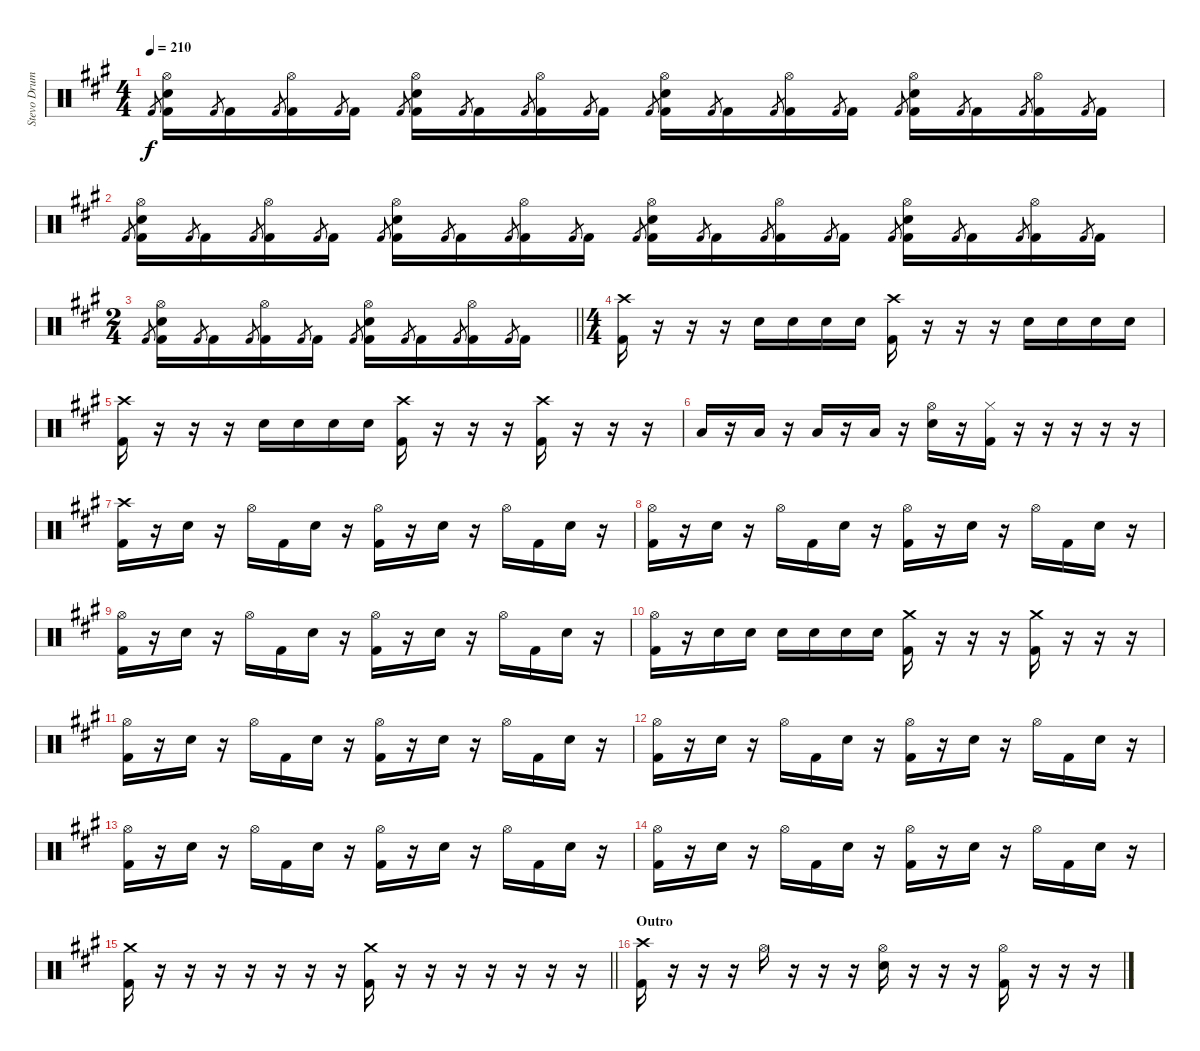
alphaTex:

\track ("Stevo Drums" "Stevo Drum") {instrument percussion}
\staff {score}
\articulation defaults
\ts (4 4)
\tempo 210
\clef neutral
\ks a "Kick (hit) 2".8{gr dy f}
("Hi-Hat (open)" "Snare (hit) 2" "Kick (hit) 2").16 "Kick (hit) 2".8{gr} "Kick (hit) 2".16 "Kick (hit) 2".8{gr} ("Hi-Hat (open)" "Kick (hit) 2").16 "Kick (hit) 2".8{gr} "Kick (hit) 2".16 "Kick (hit) 2".8{gr} ("Hi-Hat (open)" "Snare (hit) 2" "Kick (hit) 2").16 "Kick (hit) 2".8{gr} "Kick (hit) 2".16 "Kick (hit) 2".8{gr} ("Hi-Hat (open)" "Kick (hit) 2").16 "Kick (hit) 2".8{gr} "Kick (hit) 2".16 "Kick (hit) 2".8{gr} ("Hi-Hat (open)" "Snare (hit) 2" "Kick (hit) 2").16 "Kick (hit) 2".8{gr} "Kick (hit) 2".16 "Kick (hit) 2".8{gr} ("Hi-Hat (open)" "Kick (hit) 2").16 "Kick (hit) 2".8{gr} "Kick (hit) 2".16 "Kick (hit) 2".8{gr} ("Hi-Hat (open)" "Snare (hit) 2" "Kick (hit) 2").16 "Kick (hit) 2".8{gr} "Kick (hit) 2".16 "Kick (hit) 2".8{gr} ("Hi-Hat (open)" "Kick (hit) 2").16 "Kick (hit) 2".8{gr} "Kick (hit) 2".16 |
"Kick (hit) 2".8{gr} ("Hi-Hat (open)" "Snare (hit) 2" "Kick (hit) 2").16 "Kick (hit) 2".8{gr} "Kick (hit) 2".16 "Kick (hit) 2".8{gr} ("Hi-Hat (open)" "Kick (hit) 2").16 "Kick (hit) 2".8{gr} "Kick (hit) 2".16 "Kick (hit) 2".8{gr} ("Hi-Hat (open)" "Snare (hit) 2" "Kick (hit) 2").16 "Kick (hit) 2".8{gr} "Kick (hit) 2".16 "Kick (hit) 2".8{gr} ("Hi-Hat (open)" "Kick (hit) 2").16 "Kick (hit) 2".8{gr} "Kick (hit) 2".16 "Kick (hit) 2".8{gr} ("Hi-Hat (open)" "Snare (hit) 2" "Kick (hit) 2").16 "Kick (hit) 2".8{gr} "Kick (hit) 2".16 "Kick (hit) 2".8{gr} ("Hi-Hat (open)" "Kick (hit) 2").16 "Kick (hit) 2".8{gr} "Kick (hit) 2".16 "Kick (hit) 2".8{gr} ("Hi-Hat (open)" "Snare (hit) 2" "Kick (hit) 2").16 "Kick (hit) 2".8{gr} "Kick (hit) 2".16 "Kick (hit) 2".8{gr} ("Hi-Hat (open)" "Kick (hit) 2").16 "Kick (hit) 2".8{gr} "Kick (hit) 2".16 |
\ts (2 4)
\barLineRight lightlight "Kick (hit) 2".8{gr}
("Hi-Hat (open)" "Snare (hit) 2" "Kick (hit) 2").16 "Kick (hit) 2".8{gr} "Kick (hit) 2".16 "Kick (hit) 2".8{gr} ("Hi-Hat (open)" "Kick (hit) 2").16 "Kick (hit) 2".8{gr} "Kick (hit) 2".16 "Kick (hit) 2".8{gr} ("Hi-Hat (open)" "Snare (hit) 2" "Kick (hit) 2").16 "Kick (hit) 2".8{gr} "Kick (hit) 2".16 "Kick (hit) 2".8{gr} ("Hi-Hat (open)" "Kick (hit) 2").16 "Kick (hit) 2".8{gr} "Kick (hit) 2".16 |
\ts (4 4)
("Crash high (hit)" "Kick (hit) 2").16 r.16 r.16 r.16 "Snare (hit) 2".16 "Snare (hit) 2".16 "Snare (hit) 2".16 "Snare (hit) 2".16 ("Crash high (hit)" "Kick (hit) 2").16 r.16 r.16 r.16 "Snare (hit) 2".16 "Snare (hit) 2".16 "Snare (hit) 2".16 "Snare (hit) 2".16 |
("Crash high (hit)" "Kick (hit) 2").16 r.16 r.16 r.16 "Snare (hit) 2".16 "Snare (hit) 2".16 "Snare (hit) 2".16 "Snare (hit) 2".16 ("Crash high (hit)" "Kick (hit) 2").16 r.16 r.16 r.16 ("Crash high (hit)" "Kick (hit) 2").16 r.16 r.16 r.16 |
"Low Floor Tom (hit)".16 r.16 "Low Floor Tom (hit)".16 r.16 "Low Floor Tom (hit)".16 r.16 "Low Floor Tom (hit)".16 r.16 ("Hi-Hat (open)" "Snare (hit) 2").16 r.16 ("Hi-Hat (closed)" "Kick (hit) 2").16 r.16 r.16 r.16 r.16 r.16 |
("Crash high (hit)" "Kick (hit) 2").16 r.16 "Snare (hit) 2".16 r.16 "Hi-Hat (open)".16 "Kick (hit) 2".16 "Snare (hit) 2".16 r.16 ("Hi-Hat (open)" "Kick (hit) 2").16 r.16 "Snare (hit) 2".16 r.16 "Hi-Hat (open)".16 "Kick (hit) 2".16 "Snare (hit) 2".16 r.16 |
("Hi-Hat (open)" "Kick (hit) 2").16 r.16 "Snare (hit) 2".16 r.16 "Hi-Hat (open)".16 "Kick (hit) 2".16 "Snare (hit) 2".16 r.16 ("Hi-Hat (open)" "Kick (hit) 2").16 r.16 "Snare (hit) 2".16 r.16 "Hi-Hat (open)".16 "Kick (hit) 2".16 "Snare (hit) 2".16 r.16 |
("Hi-Hat (open)" "Kick (hit) 2").16 r.16 "Snare (hit) 2".16 r.16 "Hi-Hat (open)".16 "Kick (hit) 2".16 "Snare (hit) 2".16 r.16 ("Hi-Hat (open)" "Kick (hit) 2").16 r.16 "Snare (hit) 2".16 r.16 "Hi-Hat (open)".16 "Kick (hit) 2".16 "Snare (hit) 2".16 r.16 |
("Hi-Hat (open)" "Kick (hit) 2").16 r.16 "Snare (hit) 2".16 "Snare (hit) 2".16 "Snare (hit) 2".16 "Snare (hit) 2".16 "Snare (hit) 2".16 "Snare (hit) 2".16 ("Crash medium (hit)" "Kick (hit) 2").16 r.16 r.16 r.16 ("Crash medium (hit)" "Kick (hit) 2").16 r.16 r.16 r.16 |
("Hi-Hat (open)" "Kick (hit) 2").16 r.16 "Snare (hit) 2".16 r.16 "Hi-Hat (open)".16 "Kick (hit) 2".16 "Snare (hit) 2".16 r.16 ("Hi-Hat (open)" "Kick (hit) 2").16 r.16 "Snare (hit) 2".16 r.16 "Hi-Hat (open)".16 "Kick (hit) 2".16 "Snare (hit) 2".16 r.16 |
("Hi-Hat (open)" "Kick (hit) 2").16 r.16 "Snare (hit) 2".16 r.16 "Hi-Hat (open)".16 "Kick (hit) 2".16 "Snare (hit) 2".16 r.16 ("Hi-Hat (open)" "Kick (hit) 2").16 r.16 "Snare (hit) 2".16 r.16 "Hi-Hat (open)".16 "Kick (hit) 2".16 "Snare (hit) 2".16 r.16 |
("Hi-Hat (open)" "Kick (hit) 2").16 r.16 "Snare (hit) 2".16 r.16 "Hi-Hat (open)".16 "Kick (hit) 2".16 "Snare (hit) 2".16 r.16 ("Hi-Hat (open)" "Kick (hit) 2").16 r.16 "Snare (hit) 2".16 r.16 "Hi-Hat (open)".16 "Kick (hit) 2".16 "Snare (hit) 2".16 r.16 |
("Hi-Hat (open)" "Kick (hit) 2").16 r.16 "Snare (hit) 2".16 r.16 "Hi-Hat (open)".16 "Kick (hit) 2".16 "Snare (hit) 2".16 r.16 ("Hi-Hat (open)" "Kick (hit) 2").16 r.16 "Snare (hit) 2".16 r.16 "Hi-Hat (open)".16 "Kick (hit) 2".16 "Snare (hit) 2".16 r.16 |
\barLineRight lightlight
("Crash medium (hit)" "Kick (hit) 2").16 r.16 r.16 r.16 r.16 r.16 r.16 r.16 ("Crash medium (hit)" "Kick (hit) 2").16 r.16 r.16 r.16 r.16 r.16 r.16 r.16 |
\section ("" "Outro")
("Crash high (hit)" "Kick (hit) 2").16 r.16 r.16 r.16 "Hi-Hat (open)".16 r.16 r.16 r.16 ("Hi-Hat (open)" "Snare (hit) 2").16 r.16 r.16 r.16 ("Hi-Hat (open)" "Kick (hit) 2").16 r.16 r.16 r.16
